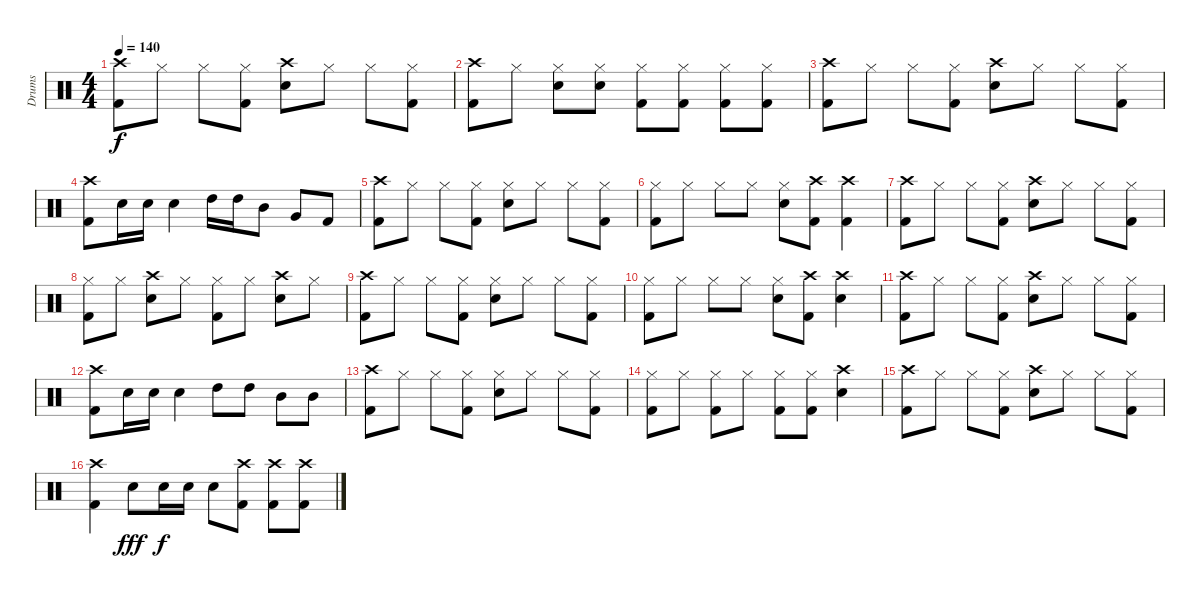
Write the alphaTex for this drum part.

\track ("Drums" "Drums") {instrument percussion}
\staff {score}
\articulation defaults
\ts (4 4)
\tempo 140
\clef neutral
\ks c
("Crash high (hit)" "Kick (hit) 2").8{dy f} "Hi-Hat (closed)".8 "Hi-Hat (closed)".8 ("Hi-Hat (closed)" "Kick (hit) 2").8 ("Crash high (hit)" "Snare (hit) 2").8 "Hi-Hat (closed)".8 "Hi-Hat (closed)".8 ("Hi-Hat (closed)" "Kick (hit) 2").8 |
("Crash high (hit)" "Kick (hit) 2").8 "Hi-Hat (closed)".8 ("Hi-Hat (closed)" "Snare (hit) 2").8 ("Hi-Hat (closed)" "Snare (hit) 2").8 ("Hi-Hat (closed)" "Kick (hit) 2").8 ("Hi-Hat (closed)" "Kick (hit) 2").8 ("Hi-Hat (closed)" "Kick (hit) 2").8 ("Hi-Hat (closed)" "Kick (hit) 2").8 |
("Crash high (hit)" "Kick (hit) 2").8 "Hi-Hat (closed)".8 "Hi-Hat (closed)".8 ("Hi-Hat (closed)" "Kick (hit) 2").8 ("Crash high (hit)" "Snare (hit) 2").8 "Hi-Hat (closed)".8 "Hi-Hat (closed)".8 ("Hi-Hat (closed)" "Kick (hit) 2").8 |
("Crash high (hit)" "Kick (hit) 2").8 "Snare (hit) 2".16 "Snare (hit) 2".16 "Snare (hit) 2".4 "High Tom (hit)".16 "High Tom (hit)".16 "Mid Tom (hit)".8 "Very Low Tom (hit)".8 "Kick (hit) 2".8 |
("Crash high (hit)" "Kick (hit) 2").8 "Hi-Hat (closed)".8 "Hi-Hat (closed)".8 ("Hi-Hat (closed)" "Kick (hit) 2").8 ("Hi-Hat (closed)" "Snare (hit) 2").8 "Hi-Hat (closed)".8 "Hi-Hat (closed)".8 ("Hi-Hat (closed)" "Kick (hit) 2").8 |
("Hi-Hat (closed)" "Kick (hit) 2").8 "Hi-Hat (closed)".8 "Hi-Hat (closed)".8 "Hi-Hat (closed)".8 ("Hi-Hat (closed)" "Snare (hit) 2").8 ("Crash high (hit)" "Kick (hit) 2").8 ("Crash high (hit)" "Kick (hit) 2").4 |
("Crash high (hit)" "Kick (hit) 2").8 "Hi-Hat (closed)".8 "Hi-Hat (closed)".8 ("Hi-Hat (closed)" "Kick (hit) 2").8 ("Crash high (hit)" "Snare (hit) 2").8 "Hi-Hat (closed)".8 "Hi-Hat (closed)".8 ("Hi-Hat (closed)" "Kick (hit) 2").8 |
("Hi-Hat (closed)" "Kick (hit) 2").8 "Hi-Hat (closed)".8 ("Crash high (hit)" "Snare (hit) 2").8 "Hi-Hat (closed)".8 ("Hi-Hat (closed)" "Kick (hit) 2").8 "Hi-Hat (closed)".8 ("Crash high (hit)" "Snare (hit) 2").8 "Hi-Hat (closed)".8 |
("Crash high (hit)" "Kick (hit) 2").8 "Hi-Hat (closed)".8 "Hi-Hat (closed)".8 ("Hi-Hat (closed)" "Kick (hit) 2").8 ("Hi-Hat (closed)" "Snare (hit) 2").8 "Hi-Hat (closed)".8 "Hi-Hat (closed)".8 ("Hi-Hat (closed)" "Kick (hit) 2").8 |
("Hi-Hat (closed)" "Kick (hit) 2").8 "Hi-Hat (closed)".8 "Hi-Hat (closed)".8 "Hi-Hat (closed)".8 ("Hi-Hat (closed)" "Snare (hit) 2").8 ("Crash high (hit)" "Kick (hit) 2").8 ("Crash high (hit)" "Snare (hit) 2").4 |
("Crash high (hit)" "Kick (hit) 2").8 "Hi-Hat (closed)".8 "Hi-Hat (closed)".8 ("Hi-Hat (closed)" "Kick (hit) 2").8 ("Crash high (hit)" "Snare (hit) 2").8 "Hi-Hat (closed)".8 "Hi-Hat (closed)".8 ("Hi-Hat (closed)" "Kick (hit) 2").8 |
("Crash high (hit)" "Kick (hit) 2").8 "Snare (hit) 2".16 "Snare (hit) 2".16 "Snare (hit) 2".4 "High Tom (hit)".8 "High Tom (hit)".8 "Mid Tom (hit)".8 "Mid Tom (hit)".8 |
("Crash high (hit)" "Kick (hit) 2").8 "Hi-Hat (closed)".8 "Hi-Hat (closed)".8 ("Hi-Hat (closed)" "Kick (hit) 2").8 ("Hi-Hat (closed)" "Snare (hit) 2").8 "Hi-Hat (closed)".8 "Hi-Hat (closed)".8 ("Hi-Hat (closed)" "Kick (hit) 2").8 |
("Hi-Hat (closed)" "Kick (hit) 2").8 "Hi-Hat (closed)".8 ("Hi-Hat (closed)" "Kick (hit) 2").8 "Hi-Hat (closed)".8 ("Hi-Hat (closed)" "Kick (hit) 2").8 ("Hi-Hat (closed)" "Kick (hit) 2").8 ("Crash high (hit)" "Snare (hit) 2").4 |
("Crash high (hit)" "Kick (hit) 2").8 "Hi-Hat (closed)".8 "Hi-Hat (closed)".8 ("Hi-Hat (closed)" "Kick (hit) 2").8 ("Crash high (hit)" "Snare (hit) 2").8 "Hi-Hat (closed)".8 "Hi-Hat (closed)".8 ("Hi-Hat (closed)" "Kick (hit) 2").8 |
("Crash high (hit)" "Kick (hit) 2").4 "Snare (hit) 2".8{dy fff} "Snare (hit) 2".16{dy f} "Snare (hit) 2".16 "Snare (hit) 2".8 ("Crash high (hit)" "Kick (hit) 2").8 ("Crash high (hit)" "Kick (hit) 2").8 ("Crash high (hit)" "Kick (hit) 2").8
